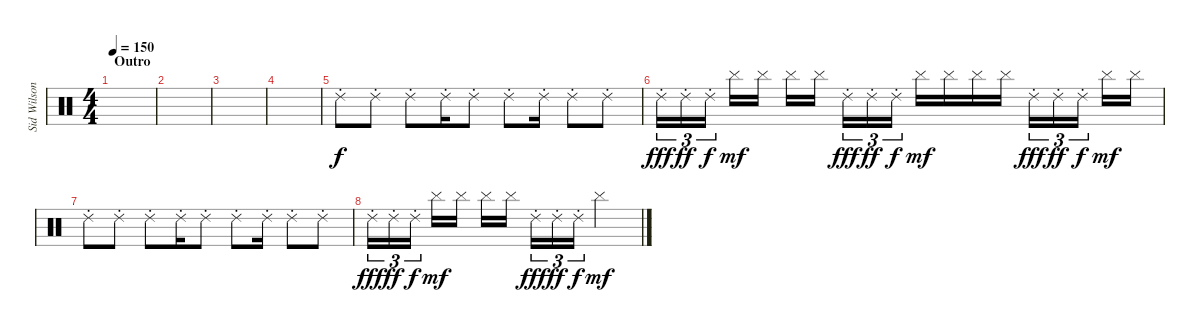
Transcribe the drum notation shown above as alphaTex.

\track ("Sid Wilson" "Sid Wilson") {instrument percussion}
\staff {score}
\articulation defaults
\ts (4 4)
\section ("" "Outro")
\tempo 150
\clef neutral
\ks c
|
|
|
|
"Ride (choke) 2".8 "Ride (choke) 2".8 "Ride (choke) 2".8 "Ride (choke) 2".16 "Ride (choke) 2".8 "Ride (choke) 2".8 "Ride (choke) 2".16 "Ride (choke) 2".8 "Ride (choke) 2".8 |
"Ride (choke) 2".16{tu (3 2) dy fff} "Ride (choke) 2".16{tu (3 2) dy ff} "Ride (choke) 2".16{tu (3 2) dy f beam splitsecondary} "Cymbal (hit)".16{dy mf} "Cymbal (hit)".16 "Cymbal (hit)".16 "Cymbal (hit)".16{beam splitsecondary} "Ride (choke) 2".16{tu (3 2) dy fff} "Ride (choke) 2".16{tu (3 2) dy ff} "Ride (choke) 2".16{tu (3 2) dy f} "Cymbal (hit)".16{dy mf} "Cymbal (hit)".16 "Cymbal (hit)".16 "Cymbal (hit)".16 "Ride (choke) 2".16{tu (3 2) dy fff} "Ride (choke) 2".16{tu (3 2) dy ff} "Ride (choke) 2".16{tu (3 2) dy f beam splitsecondary} "Cymbal (hit)".16{dy mf} "Cymbal (hit)".16 |
"Ride (choke) 2".8 "Ride (choke) 2".8 "Ride (choke) 2".8 "Ride (choke) 2".16 "Ride (choke) 2".8 "Ride (choke) 2".8 "Ride (choke) 2".16 "Ride (choke) 2".8 "Ride (choke) 2".8 |
"Ride (choke) 2".16{tu (3 2) dy fff} "Ride (choke) 2".16{tu (3 2) dy ff} "Ride (choke) 2".16{tu (3 2) dy f beam splitsecondary} "Cymbal (hit)".16{dy mf} "Cymbal (hit)".16 "Cymbal (hit)".16 "Cymbal (hit)".16{beam splitsecondary} "Ride (choke) 2".16{tu (3 2) dy fff} "Ride (choke) 2".16{tu (3 2) dy ff} "Ride (choke) 2".16{tu (3 2) dy f} "Cymbal (hit)".2{dy mf}
